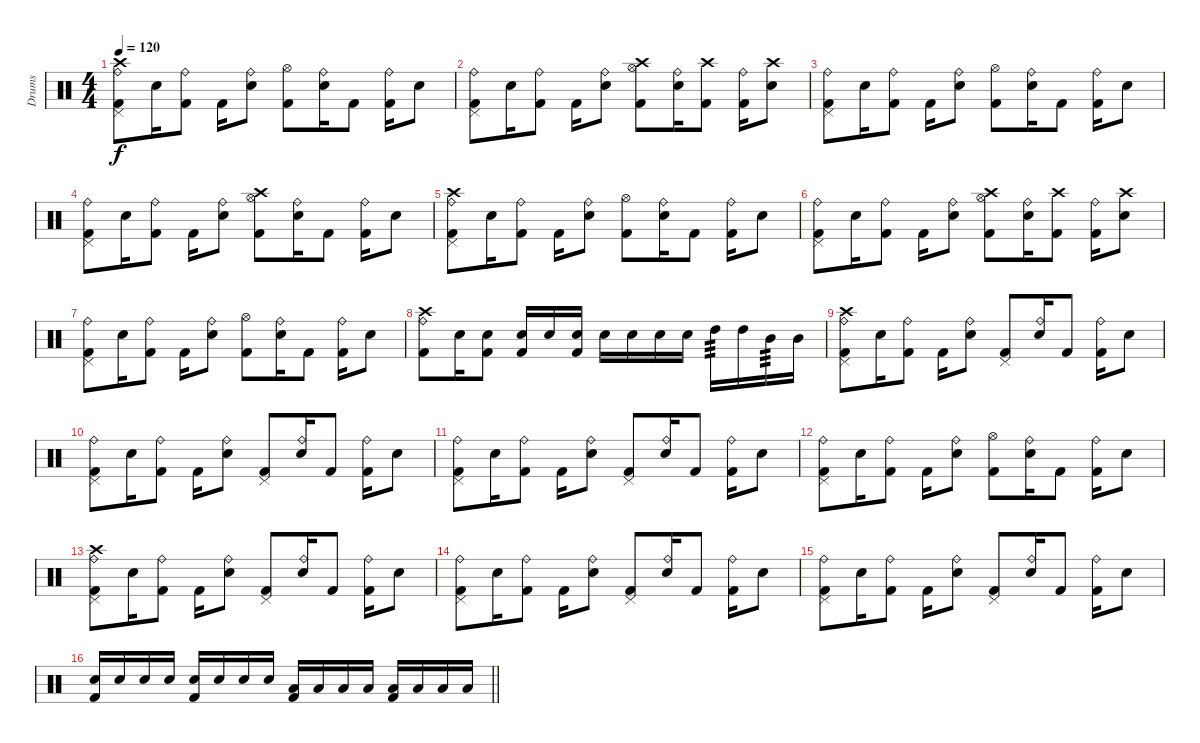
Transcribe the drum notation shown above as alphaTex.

\track ("Drums" "Drums") {instrument percussion}
\staff {score}
\articulation defaults
\ts (4 4)
\tempo 120
\clef neutral
\ks c
("Ride (bell)" "Pedal Hi-Hat (hit)" "Crash high (hit)" "Kick (hit) 2").8{dy f} "Electric Snare (hit)".16 ("Ride (bell)" "Kick (hit) 2").8 "Kick (hit) 2".16 ("Ride (bell)" "Electric Snare (hit)").8 ("Hi-Hat (open)" "Kick (hit) 2").8 ("Ride (bell)" "Electric Snare (hit)").16 "Kick (hit) 2".8 ("Ride (bell)" "Kick (hit) 2").16 "Electric Snare (hit)".8 |
("Ride (bell)" "Pedal Hi-Hat (hit)" "Kick (hit) 2").8 "Electric Snare (hit)".16 ("Ride (bell)" "Kick (hit) 2").8 "Kick (hit) 2".16 ("Ride (bell)" "Electric Snare (hit)").8 ("Hi-Hat (open)" "Crash high (hit)" "Kick (hit) 2").8 ("Ride (bell)" "Electric Snare (hit)").16 ("Crash high (hit)" "Kick (hit) 2").8 ("Ride (bell)" "Kick (hit) 2").16 ("Electric Snare (hit)" "Crash high (hit)").8 |
("Ride (bell)" "Pedal Hi-Hat (hit)" "Kick (hit) 2").8 "Electric Snare (hit)".16 ("Ride (bell)" "Kick (hit) 2").8 "Kick (hit) 2".16 ("Ride (bell)" "Electric Snare (hit)").8 ("Hi-Hat (open)" "Kick (hit) 2").8 ("Ride (bell)" "Electric Snare (hit)").16 "Kick (hit) 2".8 ("Ride (bell)" "Kick (hit) 2").16 "Electric Snare (hit)".8 |
("Ride (bell)" "Pedal Hi-Hat (hit)" "Kick (hit) 2").8 "Electric Snare (hit)".16 ("Ride (bell)" "Kick (hit) 2").8 "Kick (hit) 2".16 ("Ride (bell)" "Electric Snare (hit)").8 ("Hi-Hat (open)" "Crash high (hit)" "Kick (hit) 2").8 ("Ride (bell)" "Electric Snare (hit)").16 "Kick (hit) 2".8 ("Ride (bell)" "Kick (hit) 2").16 "Electric Snare (hit)".8 |
("Ride (bell)" "Pedal Hi-Hat (hit)" "Crash high (hit)" "Kick (hit) 2").8 "Electric Snare (hit)".16 ("Ride (bell)" "Kick (hit) 2").8 "Kick (hit) 2".16 ("Ride (bell)" "Electric Snare (hit)").8 ("Hi-Hat (open)" "Kick (hit) 2").8 ("Ride (bell)" "Electric Snare (hit)").16 "Kick (hit) 2".8 ("Ride (bell)" "Kick (hit) 2").16 "Electric Snare (hit)".8 |
("Ride (bell)" "Pedal Hi-Hat (hit)" "Kick (hit) 2").8 "Electric Snare (hit)".16 ("Ride (bell)" "Kick (hit) 2").8 "Kick (hit) 2".16 ("Ride (bell)" "Electric Snare (hit)").8 ("Hi-Hat (open)" "Crash high (hit)" "Kick (hit) 2").8 ("Ride (bell)" "Electric Snare (hit)").16 ("Crash high (hit)" "Kick (hit) 2").8 ("Ride (bell)" "Kick (hit) 2").16 ("Electric Snare (hit)" "Crash high (hit)").8 |
("Ride (bell)" "Pedal Hi-Hat (hit)" "Kick (hit) 2").8 "Electric Snare (hit)".16 ("Ride (bell)" "Kick (hit) 2").8 "Kick (hit) 2".16 ("Ride (bell)" "Electric Snare (hit)").8 ("Hi-Hat (open)" "Kick (hit) 2").8 ("Ride (bell)" "Electric Snare (hit)").16 "Kick (hit) 2".8 ("Ride (bell)" "Kick (hit) 2").16 "Electric Snare (hit)".8 |
("Ride (bell)" "Crash high (hit)" "Kick (hit) 2").8 "Electric Snare (hit)".16 ("Electric Snare (hit)" "Kick (hit) 2").8 ("Electric Snare (hit)" "Kick (hit) 2").16 "Electric Snare (hit)".16 ("Electric Snare (hit)" "Kick (hit) 2").16 "Electric Snare (hit)".16 "Electric Snare (hit)".16 "Electric Snare (hit)".16 "Electric Snare (hit)".16 "High Tom (hit)".16{tp 3} "High Tom (hit)".16 "Mid Tom (hit)".16{tp 3} "Mid Tom (hit)".16 |
("Ride (bell)" "Pedal Hi-Hat (hit)" "Crash high (hit)" "Kick (hit) 2").8 "Electric Snare (hit)".16 ("Ride (bell)" "Kick (hit) 2").8 "Kick (hit) 2".16 ("Ride (bell)" "Electric Snare (hit)").8 ("Pedal Hi-Hat (hit)" "Kick (hit) 2").8 ("Ride (bell)" "Electric Snare (hit)").16 "Kick (hit) 2".8 ("Ride (bell)" "Kick (hit) 2").16 "Electric Snare (hit)".8 |
("Ride (bell)" "Pedal Hi-Hat (hit)" "Kick (hit) 2").8 "Electric Snare (hit)".16 ("Ride (bell)" "Kick (hit) 2").8 "Kick (hit) 2".16 ("Ride (bell)" "Electric Snare (hit)").8 ("Pedal Hi-Hat (hit)" "Kick (hit) 2").8 ("Ride (bell)" "Electric Snare (hit)").16 "Kick (hit) 2".8 ("Ride (bell)" "Kick (hit) 2").16 "Electric Snare (hit)".8 |
("Ride (bell)" "Pedal Hi-Hat (hit)" "Kick (hit) 2").8 "Electric Snare (hit)".16 ("Ride (bell)" "Kick (hit) 2").8 "Kick (hit) 2".16 ("Ride (bell)" "Electric Snare (hit)").8 ("Pedal Hi-Hat (hit)" "Kick (hit) 2").8 ("Ride (bell)" "Electric Snare (hit)").16 "Kick (hit) 2".8 ("Ride (bell)" "Kick (hit) 2").16 "Electric Snare (hit)".8 |
("Ride (bell)" "Pedal Hi-Hat (hit)" "Kick (hit) 2").8 "Electric Snare (hit)".16 ("Ride (bell)" "Kick (hit) 2").8 "Kick (hit) 2".16 ("Ride (bell)" "Electric Snare (hit)").8 ("Hi-Hat (open)" "Kick (hit) 2").8 ("Ride (bell)" "Electric Snare (hit)").16 "Kick (hit) 2".8 ("Ride (bell)" "Kick (hit) 2").16 "Electric Snare (hit)".8 |
("Ride (bell)" "Pedal Hi-Hat (hit)" "Crash high (hit)" "Kick (hit) 2").8 "Electric Snare (hit)".16 ("Ride (bell)" "Kick (hit) 2").8 "Kick (hit) 2".16 ("Ride (bell)" "Electric Snare (hit)").8 ("Pedal Hi-Hat (hit)" "Kick (hit) 2").8 ("Ride (bell)" "Electric Snare (hit)").16 "Kick (hit) 2".8 ("Ride (bell)" "Kick (hit) 2").16 "Electric Snare (hit)".8 |
("Ride (bell)" "Pedal Hi-Hat (hit)" "Kick (hit) 2").8 "Electric Snare (hit)".16 ("Ride (bell)" "Kick (hit) 2").8 "Kick (hit) 2".16 ("Ride (bell)" "Electric Snare (hit)").8 ("Pedal Hi-Hat (hit)" "Kick (hit) 2").8 ("Ride (bell)" "Electric Snare (hit)").16 "Kick (hit) 2".8 ("Ride (bell)" "Kick (hit) 2").16 "Electric Snare (hit)".8 |
("Ride (bell)" "Pedal Hi-Hat (hit)" "Kick (hit) 2").8 "Electric Snare (hit)".16 ("Ride (bell)" "Kick (hit) 2").8 "Kick (hit) 2".16 ("Ride (bell)" "Electric Snare (hit)").8 ("Pedal Hi-Hat (hit)" "Kick (hit) 2").8 ("Ride (bell)" "Electric Snare (hit)").16 "Kick (hit) 2".8 ("Ride (bell)" "Kick (hit) 2").16 "Electric Snare (hit)".8 |
\barLineRight lightlight
("Electric Snare (hit)" "Kick (hit) 2").16 "Electric Snare (hit)".16 "Electric Snare (hit)".16 "Electric Snare (hit)".16 ("Electric Snare (hit)" "Kick (hit) 2").16 "Electric Snare (hit)".16 "Electric Snare (hit)".16 "Electric Snare (hit)".16 ("Low Tom (hit)" "Kick (hit) 2").16 "Low Tom (hit)".16 "Low Floor Tom (hit)".16 "Low Floor Tom (hit)".16 ("Low Tom (hit)" "Kick (hit) 2").16 "Low Tom (hit)".16 "Low Floor Tom (hit)".16 "Low Floor Tom (hit)".16
